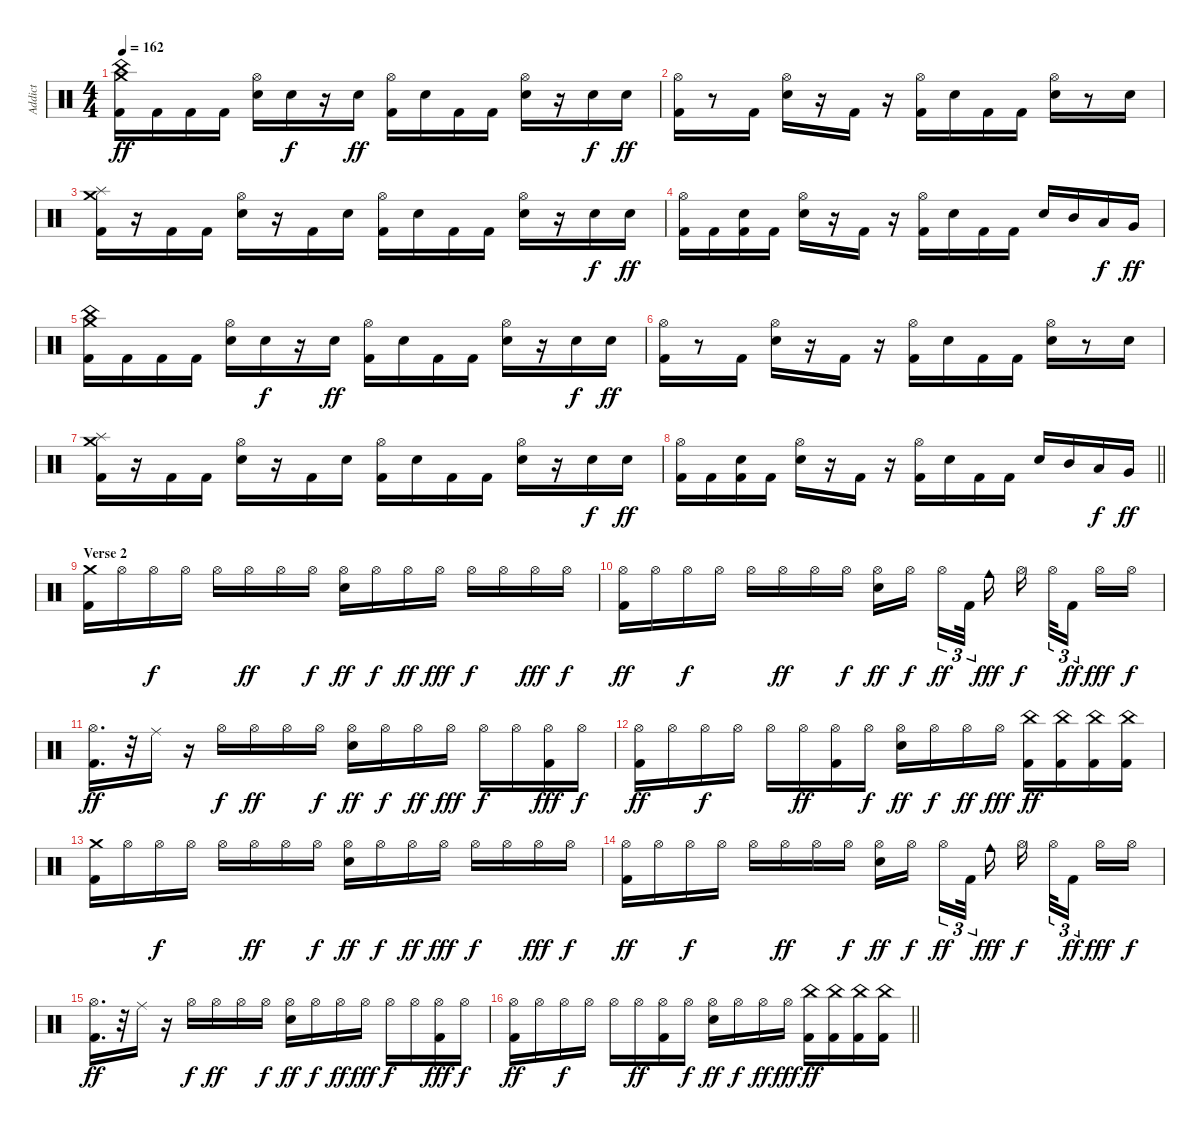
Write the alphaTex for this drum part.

\track ("Addict" "Addict") {instrument percussion}
\staff {score}
\articulation defaults
\ts (4 4)
\tempo 162
\clef neutral
\ks c
("Kick (hit) 2" "Crash medium (hit)" "China (hit)").16{dy ff} "Kick (hit) 2".16 "Kick (hit) 2".16 "Kick (hit) 2".16 ("Snare (hit) 2" "Hi-Hat (open)").16 "Snare (hit) 2".16{dy f} r.16 "Snare (hit) 2".16{dy ff} ("Kick (hit) 2" "Hi-Hat (open)").16 "Snare (hit) 2".16 "Kick (hit) 2".16 "Kick (hit) 2".16 ("Snare (hit) 2" "Hi-Hat (open)").16 r.16 "Snare (hit) 2".16{dy f} "Snare (hit) 2".16{dy ff} |
("Kick (hit) 2" "Hi-Hat (open)").16 r.8 "Kick (hit) 2".16 ("Snare (hit) 2" "Hi-Hat (open)").16 r.16 "Kick (hit) 2".16 r.16 ("Kick (hit) 2" "Hi-Hat (open)").16 "Snare (hit) 2".16 "Kick (hit) 2".16 "Kick (hit) 2".16 ("Snare (hit) 2" "Hi-Hat (open)").16 r.8 "Snare (hit) 2".16 |
("Kick (hit) 2" "Crash medium (hit)" "Splash (hit)").16 r.16 "Kick (hit) 2".16 "Kick (hit) 2".16 ("Snare (hit) 2" "Hi-Hat (open)").16 r.16 "Kick (hit) 2".16 "Snare (hit) 2".16 ("Kick (hit) 2" "Hi-Hat (open)").16 "Snare (hit) 2".16 "Kick (hit) 2".16 "Kick (hit) 2".16 ("Snare (hit) 2" "Hi-Hat (open)").16 r.16 "Snare (hit) 2".16{dy f} "Snare (hit) 2".16{dy ff} |
("Kick (hit) 2" "Hi-Hat (open)").16 "Kick (hit) 2".16 ("Kick (hit) 2" "Snare (hit) 2").16 "Kick (hit) 2".16 ("Snare (hit) 2" "Hi-Hat (open)").16 r.16 "Kick (hit) 2".16 r.16 ("Kick (hit) 2" "Hi-Hat (open)").16 "Snare (hit) 2".16 "Kick (hit) 2".16 "Kick (hit) 2".16 "Snare (hit) 2".16 "Mid Tom (hit)".16 "Low Tom (hit)".16{dy f} "Very Low Tom (hit)".16{dy ff} |
("Kick (hit) 2" "Crash medium (hit)" "China (hit)").16 "Kick (hit) 2".16 "Kick (hit) 2".16 "Kick (hit) 2".16 ("Snare (hit) 2" "Hi-Hat (open)").16 "Snare (hit) 2".16{dy f} r.16 "Snare (hit) 2".16{dy ff} ("Kick (hit) 2" "Hi-Hat (open)").16 "Snare (hit) 2".16 "Kick (hit) 2".16 "Kick (hit) 2".16 ("Snare (hit) 2" "Hi-Hat (open)").16 r.16 "Snare (hit) 2".16{dy f} "Snare (hit) 2".16{dy ff} |
("Kick (hit) 2" "Hi-Hat (open)").16 r.8 "Kick (hit) 2".16 ("Snare (hit) 2" "Hi-Hat (open)").16 r.16 "Kick (hit) 2".16 r.16 ("Kick (hit) 2" "Hi-Hat (open)").16 "Snare (hit) 2".16 "Kick (hit) 2".16 "Kick (hit) 2".16 ("Snare (hit) 2" "Hi-Hat (open)").16 r.8 "Snare (hit) 2".16 |
("Kick (hit) 2" "Crash medium (hit)" "Splash (hit)").16 r.16 "Kick (hit) 2".16 "Kick (hit) 2".16 ("Snare (hit) 2" "Hi-Hat (open)").16 r.16 "Kick (hit) 2".16 "Snare (hit) 2".16 ("Kick (hit) 2" "Hi-Hat (open)").16 "Snare (hit) 2".16 "Kick (hit) 2".16 "Kick (hit) 2".16 ("Snare (hit) 2" "Hi-Hat (open)").16 r.16 "Snare (hit) 2".16{dy f} "Snare (hit) 2".16{dy ff} |
\barLineRight lightlight
("Kick (hit) 2" "Hi-Hat (open)").16 "Kick (hit) 2".16 ("Kick (hit) 2" "Snare (hit) 2").16 "Kick (hit) 2".16 ("Snare (hit) 2" "Hi-Hat (open)").16 r.16 "Kick (hit) 2".16 r.16 ("Kick (hit) 2" "Hi-Hat (open)").16 "Snare (hit) 2".16 "Kick (hit) 2".16 "Kick (hit) 2".16 "Snare (hit) 2".16 "Mid Tom (hit)".16 "Low Tom (hit)".16{dy f} "Very Low Tom (hit)".16{dy ff} |
\section ("" "Verse 2")
("Kick (hit) 2" "Crash medium (hit)").16 "Hi-Hat (open)".16 "Hi-Hat (open)".16{dy f} "Hi-Hat (open)".16 "Hi-Hat (open)".16 "Hi-Hat (open)".16{dy ff} "Hi-Hat (open)".16 "Hi-Hat (open)".16{dy f} ("Snare (hit) 2" "Hi-Hat (open)").16{dy ff} "Hi-Hat (open)".16{dy f} "Hi-Hat (open)".16{dy ff} "Hi-Hat (open)".16{dy fff} "Hi-Hat (open)".16{dy f} "Hi-Hat (open)".16 "Hi-Hat (open)".16{dy fff} "Hi-Hat (open)".16{dy f} |
("Kick (hit) 2" "Hi-Hat (open)").16{dy ff} "Hi-Hat (open)".16 "Hi-Hat (open)".16{dy f} "Hi-Hat (open)".16 "Hi-Hat (open)".16 "Hi-Hat (open)".16{dy ff} "Hi-Hat (open)".16 "Hi-Hat (open)".16{dy f} ("Snare (hit) 2" "Hi-Hat (open)").16{dy ff} "Hi-Hat (open)".16{dy f beam splitsecondary} "Hi-Hat (open)".16{tu (3 2) dy ff} "Kick (hit) 2".32{tu (3 2) beam splitsecondary} "Cowbell medium (hit)".16{dy fff} "Hi-Hat (open)".16{dy f beam splitsecondary} "Hi-Hat (open)".32{tu (3 2)} "Kick (hit) 2".16{tu (3 2) dy ff beam splitsecondary} "Hi-Hat (open)".16{dy fff} "Hi-Hat (open)".16{dy f} |
("Kick (hit) 2" "Hi-Hat (open)").16{d dy ff} r.32 "Ride (middle)".16 r.16 "Hi-Hat (open)".16{dy f} "Hi-Hat (open)".16{dy ff} "Hi-Hat (open)".16 "Hi-Hat (open)".16{dy f} ("Snare (hit) 2" "Hi-Hat (open)").16{dy ff} "Hi-Hat (open)".16{dy f} "Hi-Hat (open)".16{dy ff} "Hi-Hat (open)".16{dy fff} "Hi-Hat (open)".16{dy f} "Hi-Hat (open)".16 ("Kick (hit) 2" "Hi-Hat (open)").16{dy fff} "Hi-Hat (open)".16{dy f} |
("Kick (hit) 2" "Hi-Hat (open)").16{dy ff} "Hi-Hat (open)".16 "Hi-Hat (open)".16{dy f} "Hi-Hat (open)".16 "Hi-Hat (open)".16 "Hi-Hat (open)".16{dy ff} ("Kick (hit) 2" "Hi-Hat (open)").16 "Hi-Hat (open)".16{dy f} ("Snare (hit) 2" "Hi-Hat (open)").16{dy ff} "Hi-Hat (open)".16{dy f} "Hi-Hat (open)".16{dy ff} "Hi-Hat (open)".16{dy fff} ("Kick (hit) 2" "China (hit)").16{dy ff} ("Kick (hit) 2" "China (hit)").16 ("Kick (hit) 2" "China (hit)").16 ("Kick (hit) 2" "China (hit)").16 |
("Kick (hit) 2" "Crash medium (hit)").16 "Hi-Hat (open)".16 "Hi-Hat (open)".16{dy f} "Hi-Hat (open)".16 "Hi-Hat (open)".16 "Hi-Hat (open)".16{dy ff} "Hi-Hat (open)".16 "Hi-Hat (open)".16{dy f} ("Snare (hit) 2" "Hi-Hat (open)").16{dy ff} "Hi-Hat (open)".16{dy f} "Hi-Hat (open)".16{dy ff} "Hi-Hat (open)".16{dy fff} "Hi-Hat (open)".16{dy f} "Hi-Hat (open)".16 "Hi-Hat (open)".16{dy fff} "Hi-Hat (open)".16{dy f} |
("Kick (hit) 2" "Hi-Hat (open)").16{dy ff} "Hi-Hat (open)".16 "Hi-Hat (open)".16{dy f} "Hi-Hat (open)".16 "Hi-Hat (open)".16 "Hi-Hat (open)".16{dy ff} "Hi-Hat (open)".16 "Hi-Hat (open)".16{dy f} ("Snare (hit) 2" "Hi-Hat (open)").16{dy ff} "Hi-Hat (open)".16{dy f beam splitsecondary} "Hi-Hat (open)".16{tu (3 2) dy ff} "Kick (hit) 2".32{tu (3 2) beam splitsecondary} "Cowbell medium (hit)".16{dy fff} "Hi-Hat (open)".16{dy f beam splitsecondary} "Hi-Hat (open)".32{tu (3 2)} "Kick (hit) 2".16{tu (3 2) dy ff beam splitsecondary} "Hi-Hat (open)".16{dy fff} "Hi-Hat (open)".16{dy f} |
("Kick (hit) 2" "Hi-Hat (open)").16{d dy ff} r.32 "Ride (middle)".16 r.16 "Hi-Hat (open)".16{dy f} "Hi-Hat (open)".16{dy ff} "Hi-Hat (open)".16 "Hi-Hat (open)".16{dy f} ("Snare (hit) 2" "Hi-Hat (open)").16{dy ff} "Hi-Hat (open)".16{dy f} "Hi-Hat (open)".16{dy ff} "Hi-Hat (open)".16{dy fff} "Hi-Hat (open)".16{dy f} "Hi-Hat (open)".16 ("Kick (hit) 2" "Hi-Hat (open)").16{dy fff} "Hi-Hat (open)".16{dy f} |
\barLineRight lightlight
("Kick (hit) 2" "Hi-Hat (open)").16{dy ff} "Hi-Hat (open)".16 "Hi-Hat (open)".16{dy f} "Hi-Hat (open)".16 "Hi-Hat (open)".16 "Hi-Hat (open)".16{dy ff} ("Kick (hit) 2" "Hi-Hat (open)").16 "Hi-Hat (open)".16{dy f} ("Snare (hit) 2" "Hi-Hat (open)").16{dy ff} "Hi-Hat (open)".16{dy f} "Hi-Hat (open)".16{dy ff} "Hi-Hat (open)".16{dy fff} ("Kick (hit) 2" "China (hit)").16{dy ff} ("Kick (hit) 2" "China (hit)").16 ("Kick (hit) 2" "China (hit)").16 ("Kick (hit) 2" "China (hit)").16
